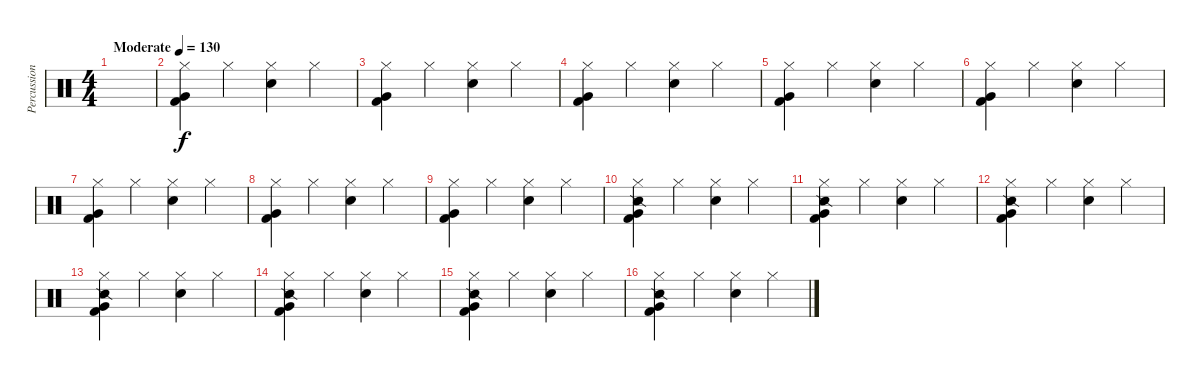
\track ("Percussion" "Percussion") {instrument percussion}
\staff {score}
\articulation defaults
\ts (4 4)
\tempo (130 "Moderate")
\clef neutral
\ks c
|
("Hi-Hat (closed)" "Very Low Tom (hit)" "Kick (hit) 2").4 "Hi-Hat (closed)".4 ("Hi-Hat (closed)" "Electric Snare (hit)").4 "Hi-Hat (closed)".4 |
("Hi-Hat (closed)" "Very Low Tom (hit)" "Kick (hit) 2").4 "Hi-Hat (closed)".4 ("Hi-Hat (closed)" "Electric Snare (hit)").4 "Hi-Hat (closed)".4 |
("Hi-Hat (closed)" "Very Low Tom (hit)" "Kick (hit) 2").4 "Hi-Hat (closed)".4 ("Hi-Hat (closed)" "Electric Snare (hit)").4 "Hi-Hat (closed)".4 |
("Hi-Hat (closed)" "Very Low Tom (hit)" "Kick (hit) 2").4 "Hi-Hat (closed)".4 ("Hi-Hat (closed)" "Electric Snare (hit)").4 "Hi-Hat (closed)".4 |
("Hi-Hat (closed)" "Very Low Tom (hit)" "Kick (hit) 2").4 "Hi-Hat (closed)".4 ("Hi-Hat (closed)" "Electric Snare (hit)").4 "Hi-Hat (closed)".4 |
("Hi-Hat (closed)" "Very Low Tom (hit)" "Kick (hit) 2").4 "Hi-Hat (closed)".4 ("Hi-Hat (closed)" "Electric Snare (hit)").4 "Hi-Hat (closed)".4 |
("Hi-Hat (closed)" "Very Low Tom (hit)" "Kick (hit) 2").4 "Hi-Hat (closed)".4 ("Hi-Hat (closed)" "Electric Snare (hit)").4 "Hi-Hat (closed)".4 |
("Hi-Hat (closed)" "Very Low Tom (hit)" "Kick (hit) 2").4 "Hi-Hat (closed)".4 ("Hi-Hat (closed)" "Electric Snare (hit)").4 "Hi-Hat (closed)".4 |
("Hi-Hat (closed)" "Snare (side stick) 2" "Very Low Tom (hit)" "Kick (hit) 2").4{volume 10} "Hi-Hat (closed)".4 ("Hi-Hat (closed)" "Electric Snare (hit)").4 "Hi-Hat (closed)".4 |
("Hi-Hat (closed)" "Snare (side stick) 2" "Very Low Tom (hit)" "Kick (hit) 2").4 "Hi-Hat (closed)".4 ("Hi-Hat (closed)" "Electric Snare (hit)").4 "Hi-Hat (closed)".4 |
("Hi-Hat (closed)" "Snare (side stick) 2" "Very Low Tom (hit)" "Kick (hit) 2").4 "Hi-Hat (closed)".4 ("Hi-Hat (closed)" "Electric Snare (hit)").4 "Hi-Hat (closed)".4 |
("Hi-Hat (closed)" "Snare (side stick) 2" "Very Low Tom (hit)" "Kick (hit) 2").4 "Hi-Hat (closed)".4 ("Hi-Hat (closed)" "Electric Snare (hit)").4 "Hi-Hat (closed)".4 |
("Hi-Hat (closed)" "Snare (side stick) 2" "Very Low Tom (hit)" "Kick (hit) 2").4{volume 16} "Hi-Hat (closed)".4 ("Hi-Hat (closed)" "Electric Snare (hit)").4 "Hi-Hat (closed)".4 |
("Hi-Hat (closed)" "Snare (side stick) 2" "Very Low Tom (hit)" "Kick (hit) 2").4 "Hi-Hat (closed)".4 ("Hi-Hat (closed)" "Electric Snare (hit)").4 "Hi-Hat (closed)".4 |
("Hi-Hat (closed)" "Snare (side stick) 2" "Very Low Tom (hit)" "Kick (hit) 2").4 "Hi-Hat (closed)".4 ("Hi-Hat (closed)" "Electric Snare (hit)").4 "Hi-Hat (closed)".4
